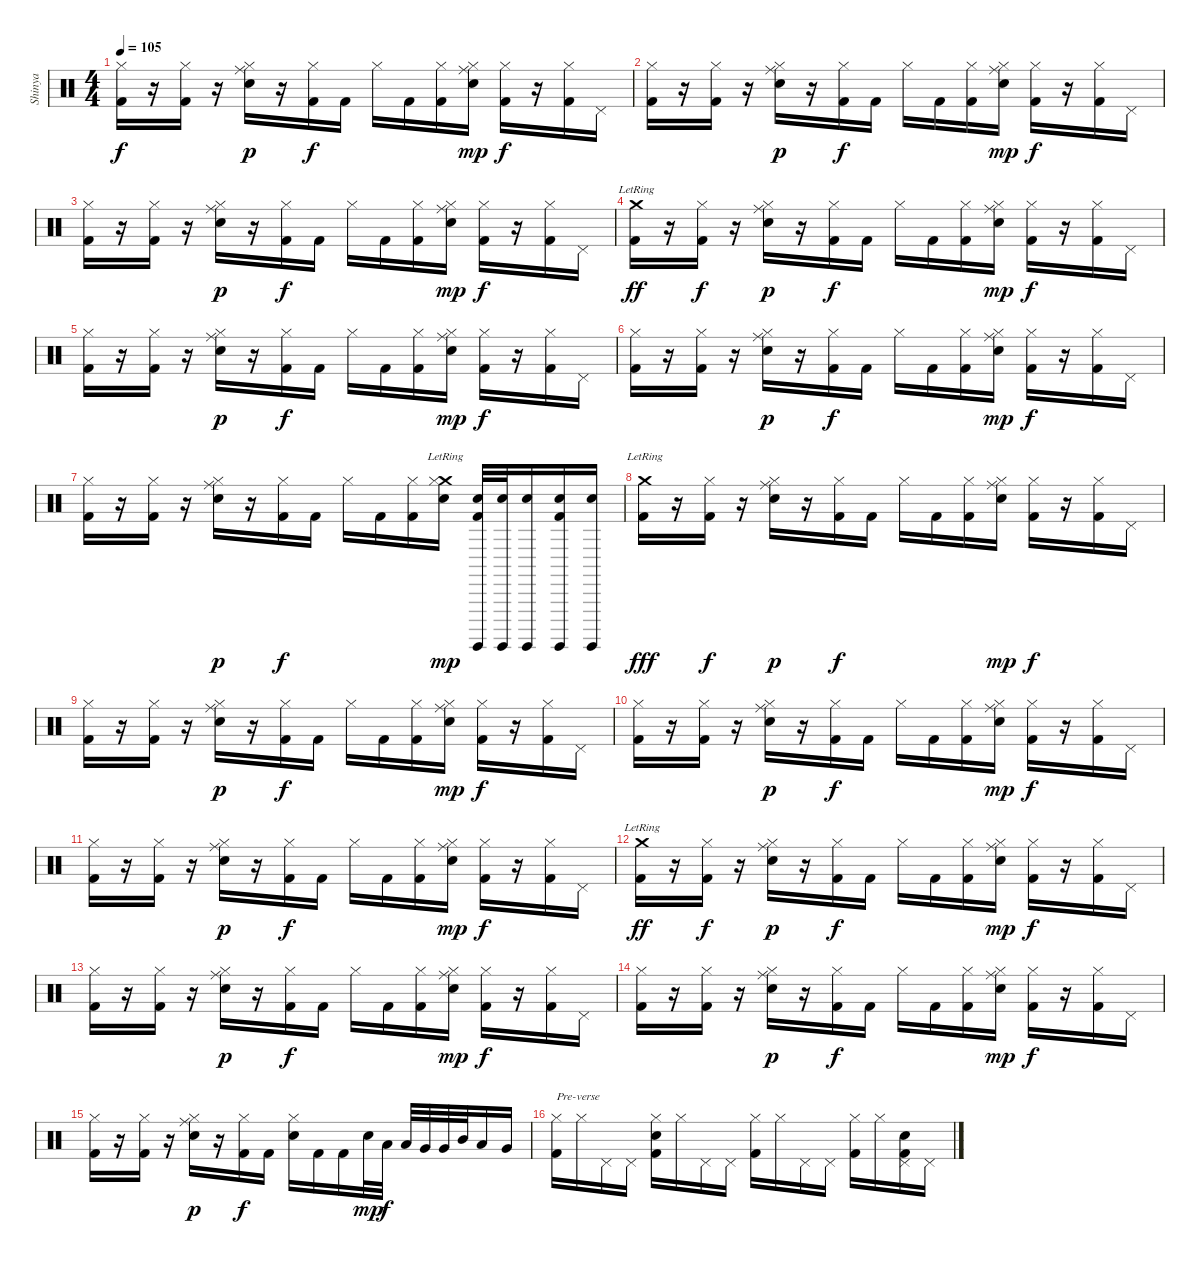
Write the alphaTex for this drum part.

\track ("Shinya" "Shinya") {instrument percussion}
\staff {score}
\articulation defaults
\ts (4 4)
\tempo 105
\clef neutral
\ks c
("Hi-Hat (closed)" "Kick (hit) 2").16{dy f} r.16 ("Hi-Hat (closed)" "Kick (hit) 2").16 r.16 ("Ride (middle)" "Hi-Hat (closed)" "Electric Snare (hit)").16{dy p} r.16 ("Hi-Hat (closed)" "Kick (hit) 2").16{dy f} "Kick (hit) 2".16 "Hi-Hat (closed)".16 "Kick (hit) 2".16 ("Hi-Hat (closed)" "Kick (hit) 2").16 ("Ride (middle)" "Hi-Hat (closed)" "Electric Snare (hit)").16{dy mp} ("Hi-Hat (closed)" "Kick (hit) 2").16{dy f} r.16 ("Hi-Hat (closed)" "Kick (hit) 2").16 "Pedal Hi-Hat (hit)".16 |
("Hi-Hat (closed)" "Kick (hit) 2").16 r.16 ("Hi-Hat (closed)" "Kick (hit) 2").16 r.16 ("Ride (middle)" "Hi-Hat (closed)" "Electric Snare (hit)").16{dy p} r.16 ("Hi-Hat (closed)" "Kick (hit) 2").16{dy f} "Kick (hit) 2".16 "Hi-Hat (closed)".16 "Kick (hit) 2".16 ("Hi-Hat (closed)" "Kick (hit) 2").16 ("Ride (middle)" "Hi-Hat (closed)" "Electric Snare (hit)").16{dy mp} ("Hi-Hat (closed)" "Kick (hit) 2").16{dy f} r.16 ("Hi-Hat (closed)" "Kick (hit) 2").16 "Pedal Hi-Hat (hit)".16 |
("Hi-Hat (closed)" "Kick (hit) 2").16 r.16 ("Hi-Hat (closed)" "Kick (hit) 2").16 r.16 ("Ride (middle)" "Hi-Hat (closed)" "Electric Snare (hit)").16{dy p} r.16 ("Hi-Hat (closed)" "Kick (hit) 2").16{dy f} "Kick (hit) 2".16 "Hi-Hat (closed)".16 "Kick (hit) 2".16 ("Hi-Hat (closed)" "Kick (hit) 2").16 ("Ride (middle)" "Hi-Hat (closed)" "Electric Snare (hit)").16{dy mp} ("Hi-Hat (closed)" "Kick (hit) 2").16{dy f} r.16 ("Hi-Hat (closed)" "Kick (hit) 2").16 "Pedal Hi-Hat (hit)".16 |
("Crash medium (hit)"{lr} "Kick (hit) 2").16{dy ff} r.16 ("Hi-Hat (closed)" "Kick (hit) 2").16{dy f} r.16 ("Ride (middle)" "Hi-Hat (closed)" "Electric Snare (hit)").16{dy p} r.16 ("Hi-Hat (closed)" "Kick (hit) 2").16{dy f} "Kick (hit) 2".16 "Hi-Hat (closed)".16 "Kick (hit) 2".16 ("Hi-Hat (closed)" "Kick (hit) 2").16 ("Ride (middle)" "Hi-Hat (closed)" "Electric Snare (hit)").16{dy mp} ("Hi-Hat (closed)" "Kick (hit) 2").16{dy f} r.16 ("Hi-Hat (closed)" "Kick (hit) 2").16 "Pedal Hi-Hat (hit)".16 |
("Hi-Hat (closed)" "Kick (hit) 2").16 r.16 ("Hi-Hat (closed)" "Kick (hit) 2").16 r.16 ("Ride (middle)" "Hi-Hat (closed)" "Electric Snare (hit)").16{dy p} r.16 ("Hi-Hat (closed)" "Kick (hit) 2").16{dy f} "Kick (hit) 2".16 "Hi-Hat (closed)".16 "Kick (hit) 2".16 ("Hi-Hat (closed)" "Kick (hit) 2").16 ("Ride (middle)" "Hi-Hat (closed)" "Electric Snare (hit)").16{dy mp} ("Hi-Hat (closed)" "Kick (hit) 2").16{dy f} r.16 ("Hi-Hat (closed)" "Kick (hit) 2").16 "Pedal Hi-Hat (hit)".16 |
("Hi-Hat (closed)" "Kick (hit) 2").16 r.16 ("Hi-Hat (closed)" "Kick (hit) 2").16 r.16 ("Ride (middle)" "Hi-Hat (closed)" "Electric Snare (hit)").16{dy p} r.16 ("Hi-Hat (closed)" "Kick (hit) 2").16{dy f} "Kick (hit) 2".16 "Hi-Hat (closed)".16 "Kick (hit) 2".16 ("Hi-Hat (closed)" "Kick (hit) 2").16 ("Ride (middle)" "Hi-Hat (closed)" "Electric Snare (hit)").16{dy mp} ("Hi-Hat (closed)" "Kick (hit) 2").16{dy f} r.16 ("Hi-Hat (closed)" "Kick (hit) 2").16 "Pedal Hi-Hat (hit)".16 |
("Hi-Hat (closed)" "Kick (hit) 2").16 r.16 ("Hi-Hat (closed)" "Kick (hit) 2").16 r.16 ("Ride (middle)" "Hi-Hat (closed)" "Electric Snare (hit)").16{dy p} r.16 ("Hi-Hat (closed)" "Kick (hit) 2").16{dy f} "Kick (hit) 2".16 "Hi-Hat (closed)".16 "Kick (hit) 2".16 ("Hi-Hat (closed)" "Kick (hit) 2").16 ("Crash medium (hit)"{lr} "Hi-Hat (closed)" "Electric Snare (hit)").16{dy mp} ("Electric Snare (hit)" "Surdo (hit)" "Kick (hit) 2").32 ("Electric Snare (hit)" "Surdo (hit)").32 ("Electric Snare (hit)" "Surdo (hit)").16 ("Electric Snare (hit)" "Surdo (hit)" "Kick (hit) 2").16 ("Electric Snare (hit)" "Surdo (hit)").16 |
("Crash medium (hit)"{lr} "Kick (hit) 2").16{dy fff} r.16 ("Hi-Hat (closed)" "Kick (hit) 2").16{dy f} r.16 ("Ride (middle)" "Hi-Hat (closed)" "Electric Snare (hit)").16{dy p} r.16 ("Hi-Hat (closed)" "Kick (hit) 2").16{dy f} "Kick (hit) 2".16 "Hi-Hat (closed)".16 "Kick (hit) 2".16 ("Hi-Hat (closed)" "Kick (hit) 2").16 ("Ride (middle)" "Hi-Hat (closed)" "Electric Snare (hit)").16{dy mp} ("Hi-Hat (closed)" "Kick (hit) 2").16{dy f} r.16 ("Hi-Hat (closed)" "Kick (hit) 2").16 "Pedal Hi-Hat (hit)".16 |
("Hi-Hat (closed)" "Kick (hit) 2").16 r.16 ("Hi-Hat (closed)" "Kick (hit) 2").16 r.16 ("Ride (middle)" "Hi-Hat (closed)" "Electric Snare (hit)").16{dy p} r.16 ("Hi-Hat (closed)" "Kick (hit) 2").16{dy f} "Kick (hit) 2".16 "Hi-Hat (closed)".16 "Kick (hit) 2".16 ("Hi-Hat (closed)" "Kick (hit) 2").16 ("Ride (middle)" "Hi-Hat (closed)" "Electric Snare (hit)").16{dy mp} ("Hi-Hat (closed)" "Kick (hit) 2").16{dy f} r.16 ("Hi-Hat (closed)" "Kick (hit) 2").16 "Pedal Hi-Hat (hit)".16 |
("Hi-Hat (closed)" "Kick (hit) 2").16 r.16 ("Hi-Hat (closed)" "Kick (hit) 2").16 r.16 ("Ride (middle)" "Hi-Hat (closed)" "Electric Snare (hit)").16{dy p} r.16 ("Hi-Hat (closed)" "Kick (hit) 2").16{dy f} "Kick (hit) 2".16 "Hi-Hat (closed)".16 "Kick (hit) 2".16 ("Hi-Hat (closed)" "Kick (hit) 2").16 ("Ride (middle)" "Hi-Hat (closed)" "Electric Snare (hit)").16{dy mp} ("Hi-Hat (closed)" "Kick (hit) 2").16{dy f} r.16 ("Hi-Hat (closed)" "Kick (hit) 2").16 "Pedal Hi-Hat (hit)".16 |
("Hi-Hat (closed)" "Kick (hit) 2").16 r.16 ("Hi-Hat (closed)" "Kick (hit) 2").16 r.16 ("Ride (middle)" "Hi-Hat (closed)" "Electric Snare (hit)").16{dy p} r.16 ("Hi-Hat (closed)" "Kick (hit) 2").16{dy f} "Kick (hit) 2".16 "Hi-Hat (closed)".16 "Kick (hit) 2".16 ("Hi-Hat (closed)" "Kick (hit) 2").16 ("Ride (middle)" "Hi-Hat (closed)" "Electric Snare (hit)").16{dy mp} ("Hi-Hat (closed)" "Kick (hit) 2").16{dy f} r.16 ("Hi-Hat (closed)" "Kick (hit) 2").16 "Pedal Hi-Hat (hit)".16 |
("Crash medium (hit)"{lr} "Kick (hit) 2").16{dy ff} r.16 ("Hi-Hat (closed)" "Kick (hit) 2").16{dy f} r.16 ("Ride (middle)" "Hi-Hat (closed)" "Electric Snare (hit)").16{dy p} r.16 ("Hi-Hat (closed)" "Kick (hit) 2").16{dy f} "Kick (hit) 2".16 "Hi-Hat (closed)".16 "Kick (hit) 2".16 ("Hi-Hat (closed)" "Kick (hit) 2").16 ("Ride (middle)" "Hi-Hat (closed)" "Electric Snare (hit)").16{dy mp} ("Hi-Hat (closed)" "Kick (hit) 2").16{dy f} r.16 ("Hi-Hat (closed)" "Kick (hit) 2").16 "Pedal Hi-Hat (hit)".16 |
("Hi-Hat (closed)" "Kick (hit) 2").16 r.16 ("Hi-Hat (closed)" "Kick (hit) 2").16 r.16 ("Ride (middle)" "Hi-Hat (closed)" "Electric Snare (hit)").16{dy p} r.16 ("Hi-Hat (closed)" "Kick (hit) 2").16{dy f} "Kick (hit) 2".16 "Hi-Hat (closed)".16 "Kick (hit) 2".16 ("Hi-Hat (closed)" "Kick (hit) 2").16 ("Ride (middle)" "Hi-Hat (closed)" "Electric Snare (hit)").16{dy mp} ("Hi-Hat (closed)" "Kick (hit) 2").16{dy f} r.16 ("Hi-Hat (closed)" "Kick (hit) 2").16 "Pedal Hi-Hat (hit)".16 |
("Hi-Hat (closed)" "Kick (hit) 2").16 r.16 ("Hi-Hat (closed)" "Kick (hit) 2").16 r.16 ("Ride (middle)" "Hi-Hat (closed)" "Electric Snare (hit)").16{dy p} r.16 ("Hi-Hat (closed)" "Kick (hit) 2").16{dy f} "Kick (hit) 2".16 "Hi-Hat (closed)".16 "Kick (hit) 2".16 ("Hi-Hat (closed)" "Kick (hit) 2").16 ("Ride (middle)" "Hi-Hat (closed)" "Electric Snare (hit)").16{dy mp} ("Hi-Hat (closed)" "Kick (hit) 2").16{dy f} r.16 ("Hi-Hat (closed)" "Kick (hit) 2").16 "Pedal Hi-Hat (hit)".16 |
("Hi-Hat (closed)" "Kick (hit) 2").16 r.16 ("Hi-Hat (closed)" "Kick (hit) 2").16 r.16 ("Ride (middle)" "Hi-Hat (closed)" "Electric Snare (hit)").16{dy p} r.16 ("Hi-Hat (closed)" "Kick (hit) 2").16{dy f} "Kick (hit) 2".16 ("Hi-Hat (closed)" "Electric Snare (hit)").16 "Kick (hit) 2".16 "Kick (hit) 2".16 "Electric Snare (hit)".32{dy mp} "Low Tom (hit)".32{dy f} "Low Tom (hit)".32 "Very Low Tom (hit)".32 "Very Low Tom (hit)".32 "Mid Tom (hit)".32 "Low Tom (hit)".16 "Very Low Tom (hit)".16 |
\section ("" "")
("Hi-Hat (closed)" "Kick (hit) 2").16{txt "Pre-verse"} "Hi-Hat (closed)".16 "Pedal Hi-Hat (hit)".16 "Pedal Hi-Hat (hit)".16 ("Hi-Hat (closed)" "Electric Snare (hit)" "Kick (hit) 2").16 "Hi-Hat (closed)".16 "Pedal Hi-Hat (hit)".16 "Pedal Hi-Hat (hit)".16 ("Hi-Hat (closed)" "Kick (hit) 2").16 "Hi-Hat (closed)".16 "Pedal Hi-Hat (hit)".16 "Pedal Hi-Hat (hit)".16 ("Hi-Hat (closed)" "Kick (hit) 2").16 "Hi-Hat (closed)".16 ("Pedal Hi-Hat (hit)" "Electric Snare (hit)" "Kick (hit) 2").16 "Pedal Hi-Hat (hit)".16
